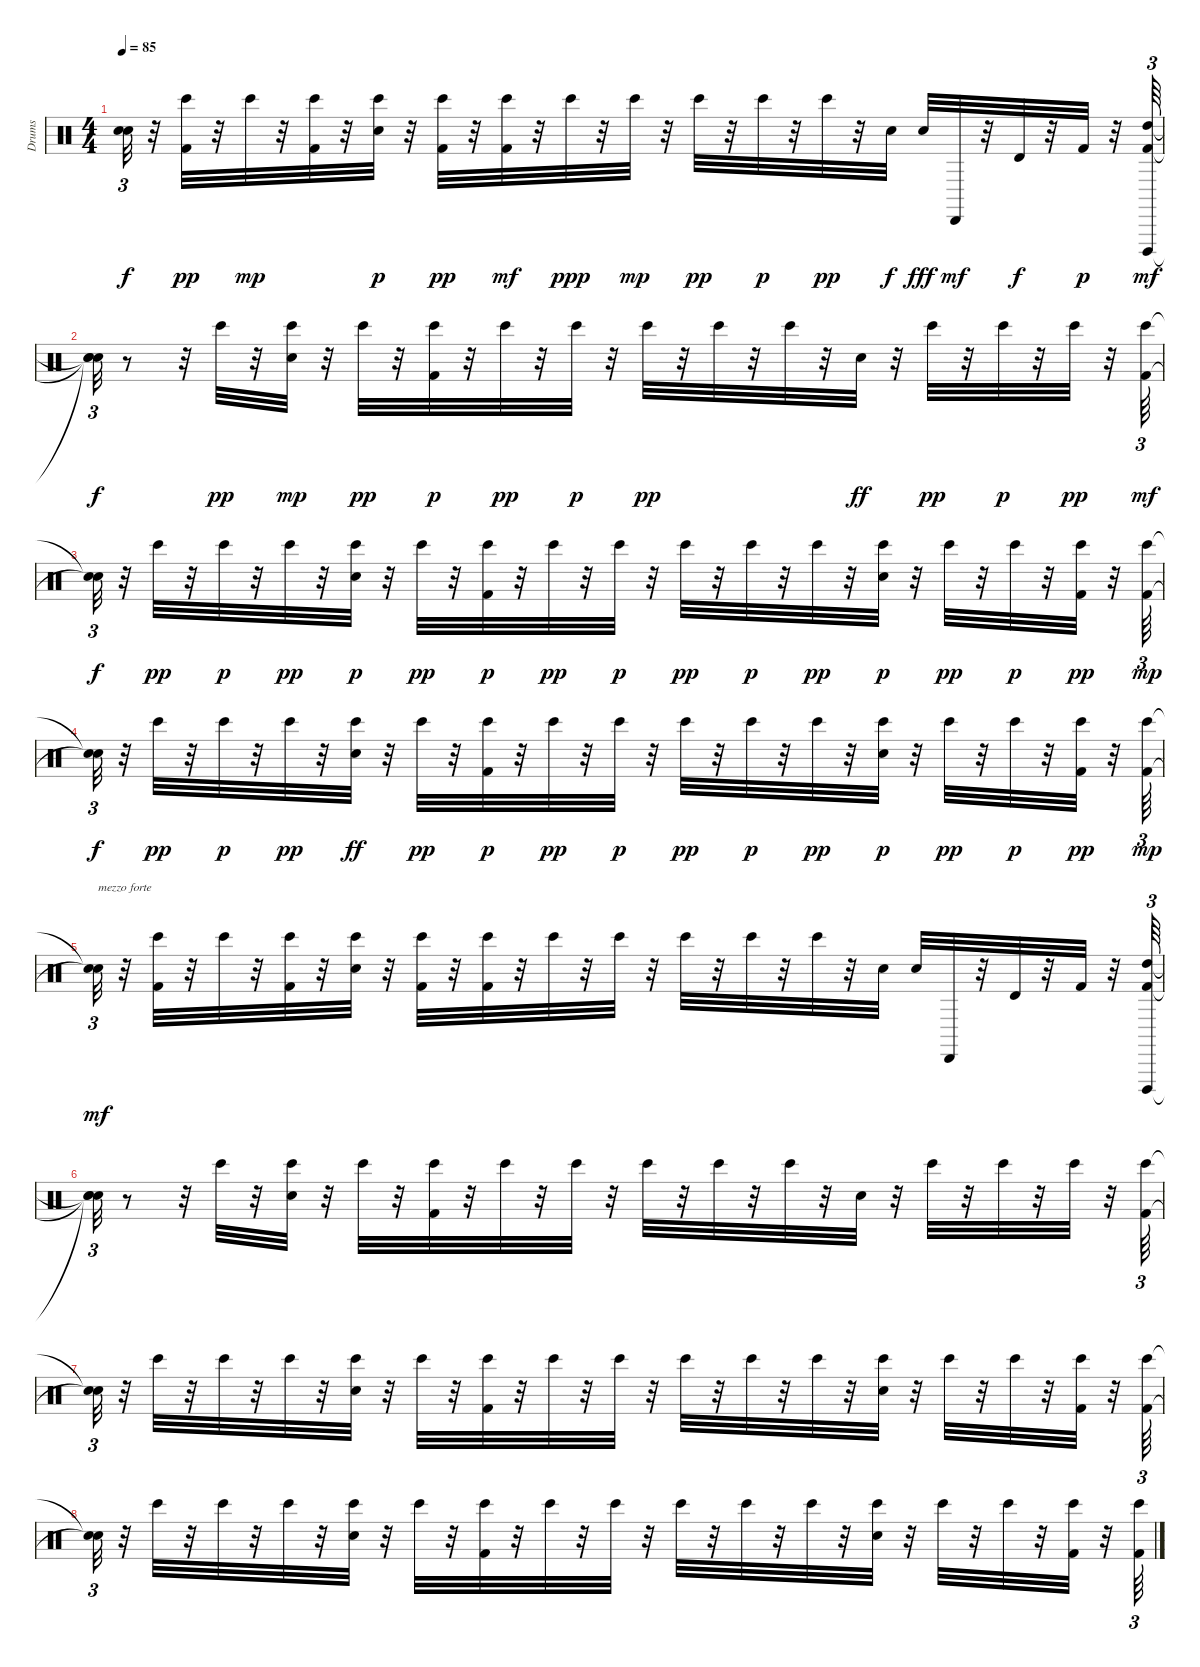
\track ("Drums" "Drums") {instrument percussion}
\staff {score}
\articulation defaults
\ts (4 4)
\tempo 85
\clef neutral
\ks c
("Snare (hit)"{t} "Snare (hit)"{t}).32{tu (3 2) dy f} r.32 ("Kick (hit) 2" "Bongo High (hit)").32{dy pp} r.32 "Bongo High (hit)".32{dy mp} r.32 ("Bongo High (hit)" "Kick (hit) 2").32 r.32 ("Snare (hit) 2" "Bongo High (hit)").32{dy p} r.32 ("Kick (hit) 2" "Bongo High (hit)").32{dy pp} r.32 ("Kick (hit) 2" "Bongo High (hit)").32{dy mf} r.32 "Bongo High (hit)".32{dy ppp} r.32 "Bongo High (hit)".32{dy mp} r.32 "Bongo High (hit)".32{dy pp} r.32 "Bongo High (hit)".32{dy p} r.32 "Bongo High (hit)".32{dy pp} r.32 "Snare (hit) 2".32{dy f} "Snare (hit) 2".32{dy fff} "Cabasa (hit)".32{dy mf} r.32 "Timbale high (hit)".32{dy f} r.32 "Kick (hit) 2".32{dy p} r.32 ("Kick (hit) 2" "High Tom (hit)" "Cuica (open)").64{tu (3 2) dy mf} |
("Snare (hit)"{t} "Snare (hit)"{t} "Snare (hit)"{t}).32{tu (3 2) dy f} r.8 r.32 "Bongo High (hit)".32{dy pp} r.32 ("Snare (hit) 2" "Bongo High (hit)").32{dy mp} r.32 "Bongo High (hit)".32{dy pp} r.32 ("Kick (hit) 2" "Bongo High (hit)").32{dy p} r.32 "Bongo High (hit)".32{dy pp} r.32 "Bongo High (hit)".32{dy p} r.32 "Bongo High (hit)".32{dy pp} r.32 "Bongo High (hit)".32 r.32 "Bongo High (hit)".32 r.32 "Snare (hit) 2".32{dy ff} r.32 "Bongo High (hit)".32{dy pp} r.32 "Bongo High (hit)".32{dy p} r.32 "Bongo High (hit)".32{dy pp} r.32 ("Bongo High (hit)" "Kick (hit) 2").64{tu (3 2) dy mf} |
("Snare (hit)"{t} "Snare (hit)"{t}).32{tu (3 2) dy f} r.32 "Bongo High (hit)".32{dy pp} r.32 "Bongo High (hit)".32{dy p} r.32 "Bongo High (hit)".32{dy pp} r.32 ("Snare (hit) 2" "Bongo High (hit)").32{dy p} r.32 "Bongo High (hit)".32{dy pp} r.32 ("Kick (hit) 2" "Bongo High (hit)").32{dy p} r.32 "Bongo High (hit)".32{dy pp} r.32 "Bongo High (hit)".32{dy p} r.32 "Bongo High (hit)".32{dy pp} r.32 "Bongo High (hit)".32{dy p} r.32 "Bongo High (hit)".32{dy pp} r.32 ("Snare (hit) 2" "Bongo High (hit)").32{dy p} r.32 "Bongo High (hit)".32{dy pp} r.32 "Bongo High (hit)".32{dy p} r.32 ("Bongo High (hit)" "Kick (hit) 2").32{dy pp} r.32 ("Kick (hit) 2" "Bongo High (hit)").64{tu (3 2) dy mp} |
("Snare (hit)"{t} "Snare (hit)"{t}).32{tu (3 2) dy f} r.32 "Bongo High (hit)".32{dy pp} r.32 "Bongo High (hit)".32{dy p} r.32 "Bongo High (hit)".32{dy pp} r.32 ("Bongo High (hit)" "Snare (hit) 2").32{dy ff} r.32 "Bongo High (hit)".32{dy pp} r.32 ("Kick (hit) 2" "Bongo High (hit)").32{dy p} r.32 "Bongo High (hit)".32{dy pp} r.32 "Bongo High (hit)".32{dy p} r.32 "Bongo High (hit)".32{dy pp} r.32 "Bongo High (hit)".32{dy p} r.32 "Bongo High (hit)".32{dy pp} r.32 ("Snare (hit) 2" "Bongo High (hit)").32{dy p} r.32 "Bongo High (hit)".32{dy pp} r.32 "Bongo High (hit)".32{dy p} r.32 ("Kick (hit) 2" "Bongo High (hit)").32{dy pp} r.32 ("Bongo High (hit)" "Kick (hit) 2").64{tu (3 2) dy mp} |
("Snare (hit)"{t} "Snare (hit)"{t}).32{tu (3 2) txt "mezzo forte" dy mf} r.32 ("Kick (hit) 2" "Bongo High (hit)").32 r.32 "Bongo High (hit)".32 r.32 ("Bongo High (hit)" "Kick (hit) 2").32 r.32 ("Snare (hit) 2" "Bongo High (hit)").32 r.32 ("Kick (hit) 2" "Bongo High (hit)").32 r.32 ("Kick (hit) 2" "Bongo High (hit)").32 r.32 "Bongo High (hit)".32 r.32 "Bongo High (hit)".32 r.32 "Bongo High (hit)".32 r.32 "Bongo High (hit)".32 r.32 "Bongo High (hit)".32 r.32 "Snare (hit) 2".32 "Snare (hit) 2".32 "Cabasa (hit)".32 r.32 "Timbale high (hit)".32 r.32 "Kick (hit) 2".32 r.32 ("Kick (hit) 2" "High Tom (hit)" "Cuica (open)").64{tu (3 2)} |
("Snare (hit)"{t} "Snare (hit)"{t} "Snare (hit)"{t}).32{tu (3 2)} r.8 r.32 "Bongo High (hit)".32 r.32 ("Snare (hit) 2" "Bongo High (hit)").32 r.32 "Bongo High (hit)".32 r.32 ("Kick (hit) 2" "Bongo High (hit)").32 r.32 "Bongo High (hit)".32 r.32 "Bongo High (hit)".32 r.32 "Bongo High (hit)".32 r.32 "Bongo High (hit)".32 r.32 "Bongo High (hit)".32 r.32 "Snare (hit) 2".32 r.32 "Bongo High (hit)".32 r.32 "Bongo High (hit)".32 r.32 "Bongo High (hit)".32 r.32 ("Bongo High (hit)" "Kick (hit) 2").64{tu (3 2)} |
("Snare (hit)"{t} "Snare (hit)"{t}).32{tu (3 2)} r.32 "Bongo High (hit)".32 r.32 "Bongo High (hit)".32 r.32 "Bongo High (hit)".32 r.32 ("Snare (hit) 2" "Bongo High (hit)").32 r.32 "Bongo High (hit)".32 r.32 ("Kick (hit) 2" "Bongo High (hit)").32 r.32 "Bongo High (hit)".32 r.32 "Bongo High (hit)".32 r.32 "Bongo High (hit)".32 r.32 "Bongo High (hit)".32 r.32 "Bongo High (hit)".32 r.32 ("Snare (hit) 2" "Bongo High (hit)").32 r.32 "Bongo High (hit)".32 r.32 "Bongo High (hit)".32 r.32 ("Bongo High (hit)" "Kick (hit) 2").32 r.32 ("Kick (hit) 2" "Bongo High (hit)").64{tu (3 2)} |
("Snare (hit)"{t} "Snare (hit)"{t}).32{tu (3 2)} r.32 "Bongo High (hit)".32 r.32 "Bongo High (hit)".32 r.32 "Bongo High (hit)".32 r.32 ("Bongo High (hit)" "Snare (hit) 2").32 r.32 "Bongo High (hit)".32 r.32 ("Kick (hit) 2" "Bongo High (hit)").32 r.32 "Bongo High (hit)".32 r.32 "Bongo High (hit)".32 r.32 "Bongo High (hit)".32 r.32 "Bongo High (hit)".32 r.32 "Bongo High (hit)".32 r.32 ("Snare (hit) 2" "Bongo High (hit)").32 r.32 "Bongo High (hit)".32 r.32 "Bongo High (hit)".32 r.32 ("Kick (hit) 2" "Bongo High (hit)").32 r.32 ("Bongo High (hit)" "Kick (hit) 2").64{tu (3 2)}
